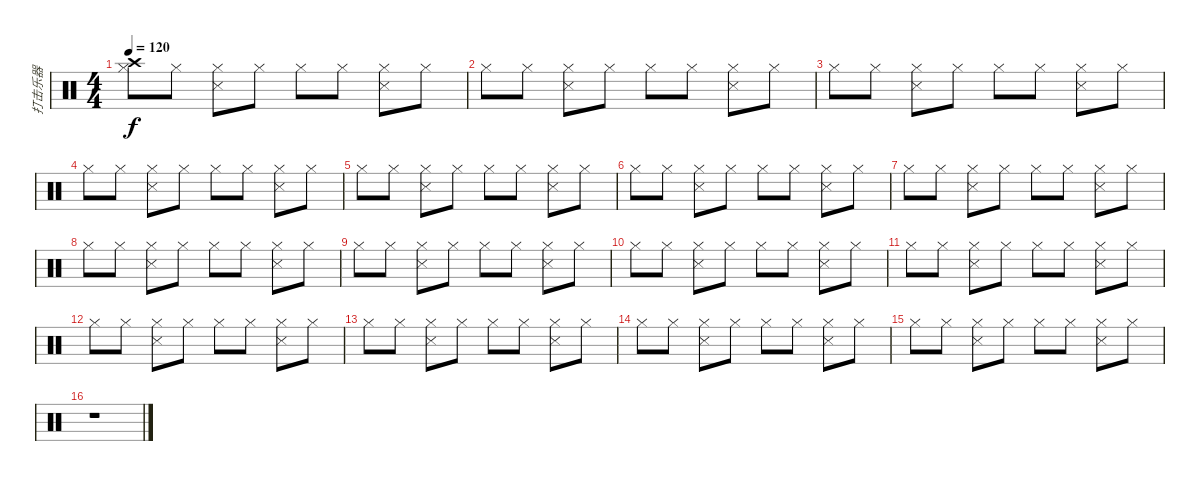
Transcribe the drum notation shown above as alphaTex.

\track ("打击乐器" "打击乐器") {instrument percussion}
\staff {score}
\articulation defaults
\ts (4 4)
\tempo 120
\clef neutral
\ks c
("Crash high (hit)" "Hi-Hat (closed)").8{dy f} "Hi-Hat (closed)".8 ("Snare (side stick) 3" "Hi-Hat (closed)").8 "Hi-Hat (closed)".8 "Hi-Hat (closed)".8 "Hi-Hat (closed)".8 ("Snare (side stick) 3" "Hi-Hat (closed)").8 "Hi-Hat (closed)".8 |
"Hi-Hat (closed)".8 "Hi-Hat (closed)".8 ("Snare (side stick) 3" "Hi-Hat (closed)").8 "Hi-Hat (closed)".8 "Hi-Hat (closed)".8 "Hi-Hat (closed)".8 ("Snare (side stick) 3" "Hi-Hat (closed)").8 "Hi-Hat (closed)".8 |
"Hi-Hat (closed)".8 "Hi-Hat (closed)".8 ("Snare (side stick) 3" "Hi-Hat (closed)").8 "Hi-Hat (closed)".8 "Hi-Hat (closed)".8 "Hi-Hat (closed)".8 ("Snare (side stick) 3" "Hi-Hat (closed)").8 "Hi-Hat (closed)".8 |
"Hi-Hat (closed)".8 "Hi-Hat (closed)".8 ("Snare (side stick) 3" "Hi-Hat (closed)").8 "Hi-Hat (closed)".8 "Hi-Hat (closed)".8 "Hi-Hat (closed)".8 ("Snare (side stick) 3" "Hi-Hat (closed)").8 "Hi-Hat (closed)".8 |
"Hi-Hat (closed)".8 "Hi-Hat (closed)".8 ("Snare (side stick) 3" "Hi-Hat (closed)").8 "Hi-Hat (closed)".8 "Hi-Hat (closed)".8 "Hi-Hat (closed)".8 ("Snare (side stick) 3" "Hi-Hat (closed)").8 "Hi-Hat (closed)".8 |
"Hi-Hat (closed)".8 "Hi-Hat (closed)".8 ("Snare (side stick) 3" "Hi-Hat (closed)").8 "Hi-Hat (closed)".8 "Hi-Hat (closed)".8 "Hi-Hat (closed)".8 ("Snare (side stick) 3" "Hi-Hat (closed)").8 "Hi-Hat (closed)".8 |
"Hi-Hat (closed)".8 "Hi-Hat (closed)".8 ("Snare (side stick) 3" "Hi-Hat (closed)").8 "Hi-Hat (closed)".8 "Hi-Hat (closed)".8 "Hi-Hat (closed)".8 ("Snare (side stick) 3" "Hi-Hat (closed)").8 "Hi-Hat (closed)".8 |
"Hi-Hat (closed)".8 "Hi-Hat (closed)".8 ("Snare (side stick) 3" "Hi-Hat (closed)").8 "Hi-Hat (closed)".8 "Hi-Hat (closed)".8 "Hi-Hat (closed)".8 ("Snare (side stick) 3" "Hi-Hat (closed)").8 "Hi-Hat (closed)".8 |
"Hi-Hat (closed)".8 "Hi-Hat (closed)".8 ("Snare (side stick) 3" "Hi-Hat (closed)").8 "Hi-Hat (closed)".8 "Hi-Hat (closed)".8 "Hi-Hat (closed)".8 ("Snare (side stick) 3" "Hi-Hat (closed)").8 "Hi-Hat (closed)".8 |
"Hi-Hat (closed)".8 "Hi-Hat (closed)".8 ("Snare (side stick) 3" "Hi-Hat (closed)").8 "Hi-Hat (closed)".8 "Hi-Hat (closed)".8 "Hi-Hat (closed)".8 ("Snare (side stick) 3" "Hi-Hat (closed)").8 "Hi-Hat (closed)".8 |
"Hi-Hat (closed)".8 "Hi-Hat (closed)".8 ("Snare (side stick) 3" "Hi-Hat (closed)").8 "Hi-Hat (closed)".8 "Hi-Hat (closed)".8 "Hi-Hat (closed)".8 ("Snare (side stick) 3" "Hi-Hat (closed)").8 "Hi-Hat (closed)".8 |
"Hi-Hat (closed)".8 "Hi-Hat (closed)".8 ("Snare (side stick) 3" "Hi-Hat (closed)").8 "Hi-Hat (closed)".8 "Hi-Hat (closed)".8 "Hi-Hat (closed)".8 ("Snare (side stick) 3" "Hi-Hat (closed)").8 "Hi-Hat (closed)".8 |
"Hi-Hat (closed)".8 "Hi-Hat (closed)".8 ("Snare (side stick) 3" "Hi-Hat (closed)").8 "Hi-Hat (closed)".8 "Hi-Hat (closed)".8 "Hi-Hat (closed)".8 ("Snare (side stick) 3" "Hi-Hat (closed)").8 "Hi-Hat (closed)".8 |
"Hi-Hat (closed)".8 "Hi-Hat (closed)".8 ("Snare (side stick) 3" "Hi-Hat (closed)").8 "Hi-Hat (closed)".8 "Hi-Hat (closed)".8 "Hi-Hat (closed)".8 ("Snare (side stick) 3" "Hi-Hat (closed)").8 "Hi-Hat (closed)".8 |
"Hi-Hat (closed)".8 "Hi-Hat (closed)".8 ("Snare (side stick) 3" "Hi-Hat (closed)").8 "Hi-Hat (closed)".8 "Hi-Hat (closed)".8 "Hi-Hat (closed)".8 ("Snare (side stick) 3" "Hi-Hat (closed)").8 "Hi-Hat (closed)".8 |
r.1
